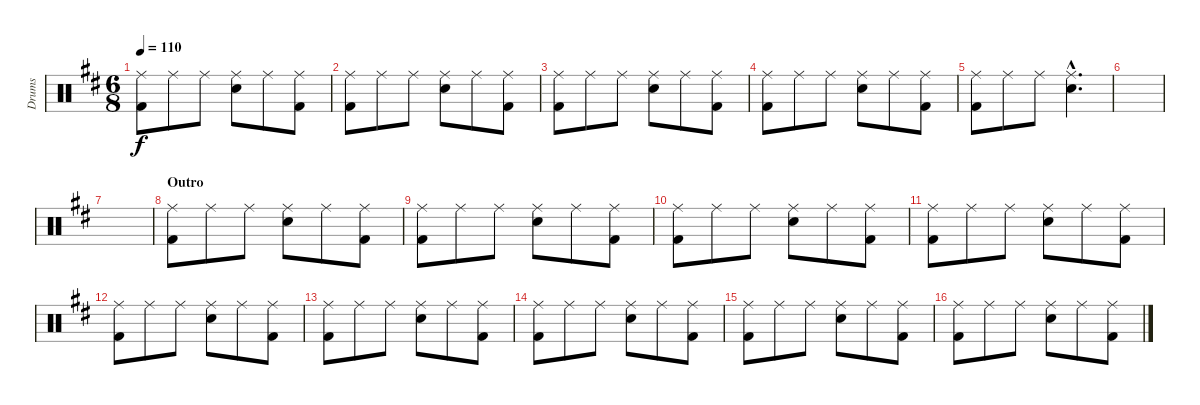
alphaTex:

\track ("Drums" "Drums") {instrument percussion}
\staff {score}
\articulation defaults
\ts (6 8)
\tempo 110
\clef neutral
\ks d
("Ride (middle)" "Kick (hit) 2").8{dy f} "Ride (middle)".8 "Ride (middle)".8 ("Ride (middle)" "Electric Snare (hit)").8 "Ride (middle)".8 ("Ride (middle)" "Kick (hit) 2").8 |
("Ride (middle)" "Kick (hit) 2").8 "Ride (middle)".8 "Ride (middle)".8 ("Ride (middle)" "Electric Snare (hit)").8 "Ride (middle)".8 ("Ride (middle)" "Kick (hit) 2").8 |
("Ride (middle)" "Kick (hit) 2").8 "Ride (middle)".8 "Ride (middle)".8 ("Ride (middle)" "Electric Snare (hit)").8 "Ride (middle)".8 ("Ride (middle)" "Kick (hit) 2").8 |
("Ride (middle)" "Kick (hit) 2").8 "Ride (middle)".8 "Ride (middle)".8 ("Ride (middle)" "Electric Snare (hit)").8 "Ride (middle)".8 ("Ride (middle)" "Kick (hit) 2").8 |
("Ride (middle)" "Kick (hit) 2").8 "Ride (middle)".8 "Ride (middle)".8 ("Ride (middle)"{hac} "Electric Snare (hit)"{hac}).4{d} |
|
|
\section ("" "Outro")
("Ride (middle)" "Kick (hit) 2").8 "Ride (middle)".8 "Ride (middle)".8 ("Ride (middle)" "Electric Snare (hit)").8 "Ride (middle)".8 ("Ride (middle)" "Kick (hit) 2").8 |
("Ride (middle)" "Kick (hit) 2").8 "Ride (middle)".8 "Ride (middle)".8 ("Ride (middle)" "Electric Snare (hit)").8 "Ride (middle)".8 ("Ride (middle)" "Kick (hit) 2").8 |
("Ride (middle)" "Kick (hit) 2").8 "Ride (middle)".8 "Ride (middle)".8 ("Ride (middle)" "Electric Snare (hit)").8 "Ride (middle)".8 ("Ride (middle)" "Kick (hit) 2").8 |
("Ride (middle)" "Kick (hit) 2").8 "Ride (middle)".8 "Ride (middle)".8 ("Ride (middle)" "Electric Snare (hit)").8 "Ride (middle)".8 ("Ride (middle)" "Kick (hit) 2").8 |
("Ride (middle)" "Kick (hit) 2").8 "Ride (middle)".8 "Ride (middle)".8 ("Ride (middle)" "Electric Snare (hit)").8 "Ride (middle)".8 ("Ride (middle)" "Kick (hit) 2").8 |
("Ride (middle)" "Kick (hit) 2").8 "Ride (middle)".8 "Ride (middle)".8 ("Ride (middle)" "Electric Snare (hit)").8 "Ride (middle)".8 ("Ride (middle)" "Kick (hit) 2").8 |
("Ride (middle)" "Kick (hit) 2").8 "Ride (middle)".8 "Ride (middle)".8 ("Ride (middle)" "Electric Snare (hit)").8 "Ride (middle)".8 ("Ride (middle)" "Kick (hit) 2").8 |
("Ride (middle)" "Kick (hit) 2").8 "Ride (middle)".8 "Ride (middle)".8 ("Ride (middle)" "Electric Snare (hit)").8 "Ride (middle)".8 ("Ride (middle)" "Kick (hit) 2").8 |
("Ride (middle)" "Kick (hit) 2").8 "Ride (middle)".8 "Ride (middle)".8 ("Ride (middle)" "Electric Snare (hit)").8 "Ride (middle)".8 ("Ride (middle)" "Kick (hit) 2").8
